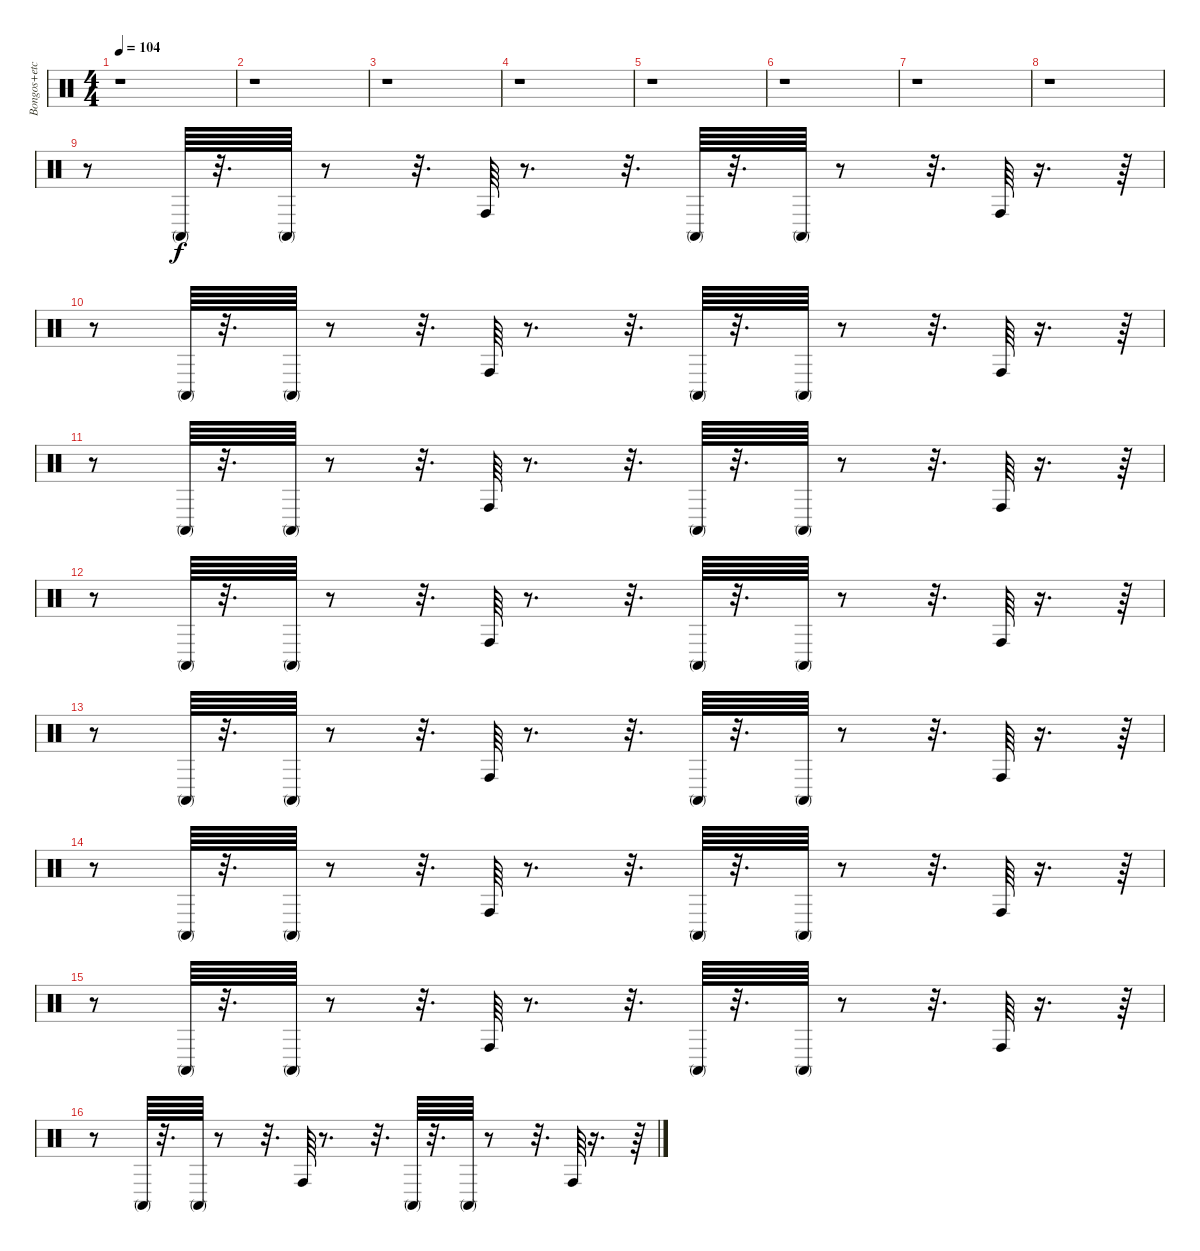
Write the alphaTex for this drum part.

\track ("Bongos+etc" "Bongos+etc") {instrument percussion}
\staff {score}
\articulation defaults
\ts (4 4)
\tempo 104
\clef neutral
\ks c
r.1{dy f} |
r.1 |
r.1 |
r.1 |
r.1 |
r.1 |
r.1 |
r.1 |
r.8 "Conga high (mute)".64 r.32{d} "Conga high (mute)".64 r.8 r.32{d} "Conga high (hit)".64 r.8{d} r.32{d} "Conga high (mute)".64 r.32{d} "Conga high (mute)".64 r.8 r.32{d} "Conga high (hit)".64 r.16{d} r.64 |
r.8 "Conga high (mute)".64 r.32{d} "Conga high (mute)".64 r.8 r.32{d} "Conga high (hit)".64 r.8{d} r.32{d} "Conga high (mute)".64 r.32{d} "Conga high (mute)".64 r.8 r.32{d} "Conga high (hit)".64 r.16{d} r.64 |
r.8 "Conga high (mute)".64 r.32{d} "Conga high (mute)".64 r.8 r.32{d} "Conga high (hit)".64 r.8{d} r.32{d} "Conga high (mute)".64 r.32{d} "Conga high (mute)".64 r.8 r.32{d} "Conga high (hit)".64 r.16{d} r.64 |
r.8 "Conga high (mute)".64 r.32{d} "Conga high (mute)".64 r.8 r.32{d} "Conga high (hit)".64 r.8{d} r.32{d} "Conga high (mute)".64 r.32{d} "Conga high (mute)".64 r.8 r.32{d} "Conga high (hit)".64 r.16{d} r.64 |
r.8 "Conga high (mute)".64 r.32{d} "Conga high (mute)".64 r.8 r.32{d} "Conga high (hit)".64 r.8{d} r.32{d} "Conga high (mute)".64 r.32{d} "Conga high (mute)".64 r.8 r.32{d} "Conga high (hit)".64 r.16{d} r.64 |
r.8 "Conga high (mute)".64 r.32{d} "Conga high (mute)".64 r.8 r.32{d} "Conga high (hit)".64 r.8{d} r.32{d} "Conga high (mute)".64 r.32{d} "Conga high (mute)".64 r.8 r.32{d} "Conga high (hit)".64 r.16{d} r.64 |
r.8 "Conga high (mute)".64 r.32{d} "Conga high (mute)".64 r.8 r.32{d} "Conga high (hit)".64 r.8{d} r.32{d} "Conga high (mute)".64 r.32{d} "Conga high (mute)".64 r.8 r.32{d} "Conga high (hit)".64 r.16{d} r.64 |
r.8 "Conga high (mute)".64 r.32{d} "Conga high (mute)".64 r.8 r.32{d} "Conga high (hit)".64 r.8{d} r.32{d} "Conga high (mute)".64 r.32{d} "Conga high (mute)".64 r.8 r.32{d} "Conga high (hit)".64 r.16{d} r.64
